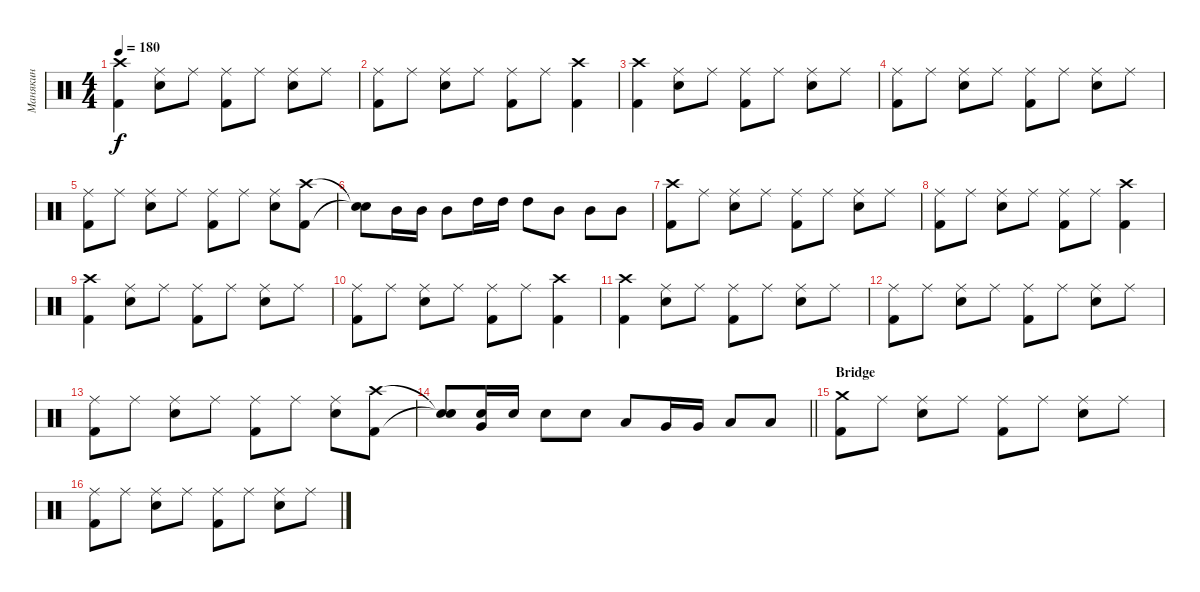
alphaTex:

\track ("Манякин" "Манякин") {instrument percussion}
\staff {score}
\articulation defaults
\ts (4 4)
\tempo 180
\clef neutral
\ks c
("Kick (hit) 2" "Crash high (hit)").4{dy f} ("Snare (hit) 2" "Ride (middle)").8 "Ride (middle)".8 ("Kick (hit) 2" "Ride (middle)").8 "Ride (middle)".8 ("Snare (hit) 2" "Ride (middle)").8 "Ride (middle)".8 |
("Kick (hit) 2" "Ride (middle)").8 "Ride (middle)".8 ("Snare (hit) 2" "Ride (middle)").8 "Ride (middle)".8 ("Kick (hit) 2" "Ride (middle)").8 "Ride (middle)".8 ("Kick (hit) 2" "Crash high (hit)").4 |
("Kick (hit) 2" "Crash high (hit)").4 ("Snare (hit) 2" "Ride (middle)").8 "Ride (middle)".8 ("Kick (hit) 2" "Ride (middle)").8 "Ride (middle)".8 ("Snare (hit) 2" "Ride (middle)").8 "Ride (middle)".8 |
("Kick (hit) 2" "Ride (middle)").8 "Ride (middle)".8 ("Snare (hit) 2" "Ride (middle)").8 "Ride (middle)".8 ("Kick (hit) 2" "Ride (middle)").8 "Ride (middle)".8 ("Snare (hit) 2" "Ride (middle)").8 "Ride (middle)".8 |
("Kick (hit) 2" "Ride (middle)").8 "Ride (middle)".8 ("Snare (hit) 2" "Ride (middle)").8 "Ride (middle)".8 ("Kick (hit) 2" "Ride (middle)").8 "Ride (middle)".8 ("Snare (hit) 2" "Ride (middle)").8 ("Kick (hit) 2" "Crash high (hit)").8 |
("Snare (hit)"{t} "Snare (hit)"{t}).8 "Mid Tom (hit)".16 "Mid Tom (hit)".16 "Mid Tom (hit)".8 "High Tom (hit)".16 "High Tom (hit)".16 "High Tom (hit)".8 "Mid Tom (hit)".8 "Mid Tom (hit)".8 "Mid Tom (hit)".8 |
("Kick (hit) 2" "Crash high (hit)").8 "Ride (middle)".8 ("Snare (hit) 2" "Ride (middle)").8 "Ride (middle)".8 ("Kick (hit) 2" "Ride (middle)").8 "Ride (middle)".8 ("Snare (hit) 2" "Ride (middle)").8 "Ride (middle)".8 |
("Kick (hit) 2" "Ride (middle)").8 "Ride (middle)".8 ("Snare (hit) 2" "Ride (middle)").8 "Ride (middle)".8 ("Kick (hit) 2" "Ride (middle)").8 "Ride (middle)".8 ("Kick (hit) 2" "Crash high (hit)").4 |
("Kick (hit) 2" "Crash high (hit)").4 ("Snare (hit) 2" "Ride (middle)").8 "Ride (middle)".8 ("Kick (hit) 2" "Ride (middle)").8 "Ride (middle)".8 ("Snare (hit) 2" "Ride (middle)").8 "Ride (middle)".8 |
("Kick (hit) 2" "Ride (middle)").8 "Ride (middle)".8 ("Snare (hit) 2" "Ride (middle)").8 "Ride (middle)".8 ("Kick (hit) 2" "Ride (middle)").8 "Ride (middle)".8 ("Kick (hit) 2" "Crash high (hit)").4 |
("Kick (hit) 2" "Crash high (hit)").4 ("Snare (hit) 2" "Ride (middle)").8 "Ride (middle)".8 ("Kick (hit) 2" "Ride (middle)").8 "Ride (middle)".8 ("Snare (hit) 2" "Ride (middle)").8 "Ride (middle)".8 |
("Kick (hit) 2" "Ride (middle)").8 "Ride (middle)".8 ("Snare (hit) 2" "Ride (middle)").8 "Ride (middle)".8 ("Kick (hit) 2" "Ride (middle)").8 "Ride (middle)".8 ("Snare (hit) 2" "Ride (middle)").8 "Ride (middle)".8 |
("Kick (hit) 2" "Ride (middle)").8 "Ride (middle)".8 ("Snare (hit) 2" "Ride (middle)").8 "Ride (middle)".8 ("Kick (hit) 2" "Ride (middle)").8 "Ride (middle)".8 ("Snare (hit) 2" "Ride (middle)").8 ("Kick (hit) 2" "Crash high (hit)").8 |
\barLineRight lightlight
("Snare (hit)"{t} "Snare (hit)"{t}).8 ("Very Low Tom (hit)" "Snare (hit) 2").16 "Snare (hit) 2".16 "Snare (hit) 2".8 "Snare (hit) 2".8 "Low Tom (hit)".8 "Very Low Tom (hit)".16 "Very Low Tom (hit)".16 "Low Floor Tom (hit)".8 "Low Floor Tom (hit)".8 |
\section ("" "Bridge")
("Kick (hit) 2" "Crash medium (hit)").8 "Ride (middle)".8 ("Snare (hit) 2" "Ride (middle)").8 "Ride (middle)".8 ("Kick (hit) 2" "Ride (middle)").8 "Ride (middle)".8 ("Snare (hit) 2" "Ride (middle)").8 "Ride (middle)".8 |
("Kick (hit) 2" "Ride (middle)").8 "Ride (middle)".8 ("Snare (hit) 2" "Ride (middle)").8 "Ride (middle)".8 ("Kick (hit) 2" "Ride (middle)").8 "Ride (middle)".8 ("Snare (hit) 2" "Ride (middle)").8 "Ride (middle)".8
